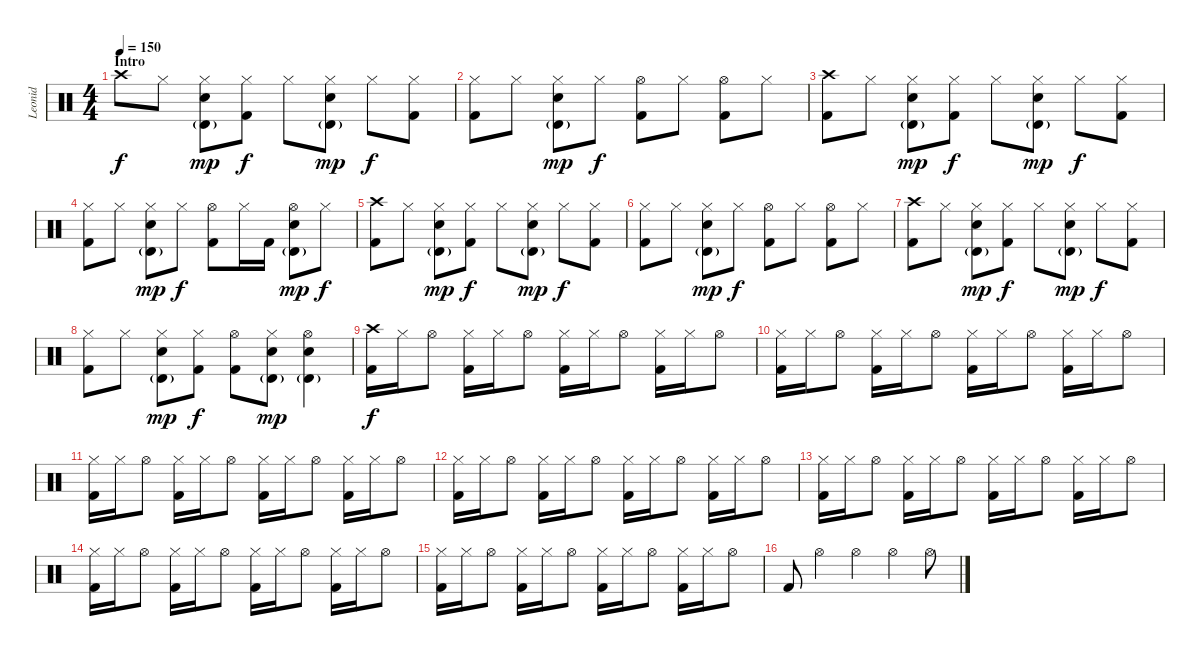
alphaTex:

\track ("Leonid" "Leonid") {instrument percussion}
\staff {score}
\articulation defaults
\ts (4 4)
\section ("" "Intro")
\tempo 150
\clef neutral
\ks c "Crash high (hit)".8{dy f} "Hi-Hat (closed)".8
("Hi-Hat (closed)" "Timbale high (hit)"{g} "Electric Snare (hit)").8{dy mp} ("Hi-Hat (closed)" "Kick (hit) 2").8{dy f} "Hi-Hat (closed)".8 ("Hi-Hat (closed)" "Timbale high (hit)"{g} "Electric Snare (hit)").8{dy mp} "Hi-Hat (closed)".8{dy f} ("Hi-Hat (closed)" "Kick (hit) 2").8 |
("Hi-Hat (closed)" "Kick (hit) 2").8 "Hi-Hat (closed)".8 ("Hi-Hat (closed)" "Timbale high (hit)"{g} "Electric Snare (hit)").8{dy mp} "Hi-Hat (closed)".8{dy f} ("Hi-Hat (open)" "Kick (hit) 2").8 "Hi-Hat (closed)".8 ("Hi-Hat (open)" "Kick (hit) 2").8 "Hi-Hat (closed)".8 |
("Crash high (hit)" "Kick (hit) 2").8 "Hi-Hat (closed)".8 ("Hi-Hat (closed)" "Timbale high (hit)"{g} "Electric Snare (hit)").8{dy mp} ("Hi-Hat (closed)" "Kick (hit) 2").8{dy f} "Hi-Hat (closed)".8 ("Hi-Hat (closed)" "Timbale high (hit)"{g} "Electric Snare (hit)").8{dy mp} "Hi-Hat (closed)".8{dy f} ("Hi-Hat (closed)" "Kick (hit) 2").8 |
("Hi-Hat (closed)" "Kick (hit) 2").8 "Hi-Hat (closed)".8 ("Hi-Hat (closed)" "Timbale high (hit)"{g} "Electric Snare (hit)").8{dy mp} "Hi-Hat (closed)".8{dy f} ("Hi-Hat (open)" "Kick (hit) 2").8 "Hi-Hat (closed)".16 "Kick (hit) 2".16 ("Hi-Hat (open)" "Timbale high (hit)"{g} "Electric Snare (hit)").8{dy mp} "Hi-Hat (closed)".8{dy f} |
("Crash high (hit)" "Kick (hit) 2").8 "Hi-Hat (closed)".8 ("Hi-Hat (closed)" "Timbale high (hit)"{g} "Electric Snare (hit)").8{dy mp} ("Hi-Hat (closed)" "Kick (hit) 2").8{dy f} "Hi-Hat (closed)".8 ("Hi-Hat (closed)" "Timbale high (hit)"{g} "Electric Snare (hit)").8{dy mp} "Hi-Hat (closed)".8{dy f} ("Hi-Hat (closed)" "Kick (hit) 2").8 |
("Hi-Hat (closed)" "Kick (hit) 2").8 "Hi-Hat (closed)".8 ("Hi-Hat (closed)" "Timbale high (hit)"{g} "Electric Snare (hit)").8{dy mp} "Hi-Hat (closed)".8{dy f} ("Hi-Hat (open)" "Kick (hit) 2").8 "Hi-Hat (closed)".8 ("Hi-Hat (open)" "Kick (hit) 2").8 "Hi-Hat (closed)".8 |
("Crash high (hit)" "Kick (hit) 2").8 "Hi-Hat (closed)".8 ("Hi-Hat (closed)" "Timbale high (hit)"{g} "Electric Snare (hit)").8{dy mp} ("Hi-Hat (closed)" "Kick (hit) 2").8{dy f} "Hi-Hat (closed)".8 ("Hi-Hat (closed)" "Timbale high (hit)"{g} "Electric Snare (hit)").8{dy mp} "Hi-Hat (closed)".8{dy f} ("Hi-Hat (closed)" "Kick (hit) 2").8 |
("Hi-Hat (closed)" "Kick (hit) 2").8 "Hi-Hat (closed)".8 ("Hi-Hat (closed)" "Timbale high (hit)"{g} "Electric Snare (hit)").8{dy mp} ("Hi-Hat (closed)" "Kick (hit) 2").8{dy f} ("Hi-Hat (open)" "Kick (hit) 2").8 ("Hi-Hat (closed)" "Timbale high (hit)"{g} "Electric Snare (hit)").8{dy mp} ("Hi-Hat (open)" "Timbale high (hit)"{g} "Electric Snare (hit)").4 |
("Crash high (hit)" "Kick (hit) 2").16{dy f volume 16} "Hi-Hat (closed)".16 "Hi-Hat (open)".8 ("Hi-Hat (closed)" "Kick (hit) 2").16 "Hi-Hat (closed)".16 "Hi-Hat (open)".8 ("Hi-Hat (closed)" "Kick (hit) 2").16 "Hi-Hat (closed)".16 "Hi-Hat (open)".8 ("Hi-Hat (closed)" "Kick (hit) 2").16 "Hi-Hat (closed)".16 "Hi-Hat (open)".8 |
("Hi-Hat (closed)" "Kick (hit) 2").16 "Hi-Hat (closed)".16 "Hi-Hat (open)".8 ("Hi-Hat (closed)" "Kick (hit) 2").16 "Hi-Hat (closed)".16 "Hi-Hat (open)".8 ("Hi-Hat (closed)" "Kick (hit) 2").16 "Hi-Hat (closed)".16 "Hi-Hat (open)".8 ("Hi-Hat (closed)" "Kick (hit) 2").16 "Hi-Hat (closed)".16 "Hi-Hat (open)".8 |
("Hi-Hat (closed)" "Kick (hit) 2").16 "Hi-Hat (closed)".16 "Hi-Hat (open)".8 ("Hi-Hat (closed)" "Kick (hit) 2").16 "Hi-Hat (closed)".16 "Hi-Hat (open)".8 ("Hi-Hat (closed)" "Kick (hit) 2").16 "Hi-Hat (closed)".16 "Hi-Hat (open)".8 ("Hi-Hat (closed)" "Kick (hit) 2").16 "Hi-Hat (closed)".16 "Hi-Hat (open)".8 |
("Hi-Hat (closed)" "Kick (hit) 2").16 "Hi-Hat (closed)".16 "Hi-Hat (open)".8 ("Hi-Hat (closed)" "Kick (hit) 2").16 "Hi-Hat (closed)".16 "Hi-Hat (open)".8 ("Hi-Hat (closed)" "Kick (hit) 2").16 "Hi-Hat (closed)".16 "Hi-Hat (open)".8 ("Hi-Hat (closed)" "Kick (hit) 2").16 "Hi-Hat (closed)".16 "Hi-Hat (open)".8 |
("Hi-Hat (closed)" "Kick (hit) 2").16 "Hi-Hat (closed)".16 "Hi-Hat (open)".8 ("Hi-Hat (closed)" "Kick (hit) 2").16 "Hi-Hat (closed)".16 "Hi-Hat (open)".8 ("Hi-Hat (closed)" "Kick (hit) 2").16 "Hi-Hat (closed)".16 "Hi-Hat (open)".8 ("Hi-Hat (closed)" "Kick (hit) 2").16 "Hi-Hat (closed)".16 "Hi-Hat (open)".8 |
("Hi-Hat (closed)" "Kick (hit) 2").16 "Hi-Hat (closed)".16 "Hi-Hat (open)".8 ("Hi-Hat (closed)" "Kick (hit) 2").16 "Hi-Hat (closed)".16 "Hi-Hat (open)".8 ("Hi-Hat (closed)" "Kick (hit) 2").16 "Hi-Hat (closed)".16 "Hi-Hat (open)".8 ("Hi-Hat (closed)" "Kick (hit) 2").16 "Hi-Hat (closed)".16 "Hi-Hat (open)".8 |
("Hi-Hat (closed)" "Kick (hit) 2").16 "Hi-Hat (closed)".16 "Hi-Hat (open)".8 ("Hi-Hat (closed)" "Kick (hit) 2").16 "Hi-Hat (closed)".16 "Hi-Hat (open)".8 ("Hi-Hat (closed)" "Kick (hit) 2").16 "Hi-Hat (closed)".16 "Hi-Hat (open)".8 ("Hi-Hat (closed)" "Kick (hit) 2").16 "Hi-Hat (closed)".16 "Hi-Hat (open)".8 |
"Kick (hit) 2".8 "Hi-Hat (open)".4 "Hi-Hat (open)".4 "Hi-Hat (open)".4 "Hi-Hat (open)".8
